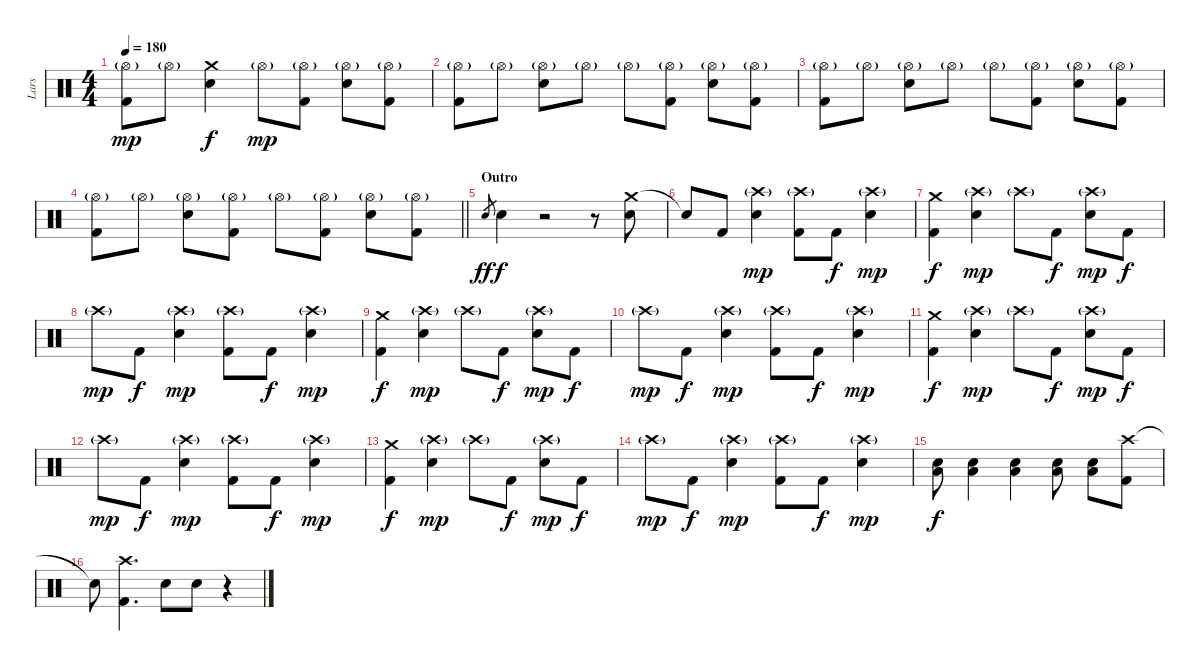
\track ("Lars" "Lars") {instrument percussion}
\staff {score}
\articulation defaults
\ts (4 4)
\tempo 180
\clef neutral
\ks c
("Hi-Hat (open)"{g} "Kick (hit) 2").8{dy mp} "Hi-Hat (open)"{g}.8 ("Crash medium (hit)" "Electric Snare (hit)").4{dy f} "Hi-Hat (open)"{g}.8{dy mp} ("Hi-Hat (open)"{g} "Kick (hit) 2").8 ("Hi-Hat (open)"{g} "Electric Snare (hit)").8 ("Hi-Hat (open)"{g} "Kick (hit) 2").8 |
("Hi-Hat (open)"{g} "Kick (hit) 2").8 "Hi-Hat (open)"{g}.8 ("Hi-Hat (open)"{g} "Electric Snare (hit)").8 "Hi-Hat (open)"{g}.8 "Hi-Hat (open)"{g}.8 ("Hi-Hat (open)"{g} "Kick (hit) 2").8 ("Hi-Hat (open)"{g} "Electric Snare (hit)").8 ("Hi-Hat (open)"{g} "Kick (hit) 2").8 |
("Hi-Hat (open)"{g} "Kick (hit) 2").8 "Hi-Hat (open)"{g}.8 ("Hi-Hat (open)"{g} "Electric Snare (hit)").8 "Hi-Hat (open)"{g}.8 "Hi-Hat (open)"{g}.8 ("Hi-Hat (open)"{g} "Kick (hit) 2").8 ("Hi-Hat (open)"{g} "Electric Snare (hit)").8 ("Hi-Hat (open)"{g} "Kick (hit) 2").8 |
\barLineRight lightlight
("Hi-Hat (open)"{g} "Kick (hit) 2").8 "Hi-Hat (open)"{g}.8 ("Hi-Hat (open)"{g} "Electric Snare (hit)").8 ("Hi-Hat (open)"{g} "Kick (hit) 2").8 "Hi-Hat (open)"{g}.8 ("Hi-Hat (open)"{g} "Kick (hit) 2").8 ("Hi-Hat (open)"{g} "Electric Snare (hit)").8 ("Hi-Hat (open)"{g} "Kick (hit) 2").8 |
\section ("" "Outro")
"Electric Snare (hit)".8{gr dy ff} "Electric Snare (hit)".4{dy f} r.2 r.8 ("Crash medium (hit)" "Electric Snare (hit)").8 |
"Snare (hit)"{t}.8 "Kick (hit) 2".8 ("Crash high (hit)"{g} "Electric Snare (hit)").4{dy mp} ("Crash high (hit)"{g} "Kick (hit) 2").8 "Kick (hit) 2".8{dy f} ("Crash high (hit)"{g} "Electric Snare (hit)").4{dy mp} |
("Crash medium (hit)" "Kick (hit) 2").4{dy f} ("Crash high (hit)"{g} "Electric Snare (hit)").4{dy mp} "Crash high (hit)"{g}.8 "Kick (hit) 2".8{dy f} ("Crash high (hit)"{g} "Electric Snare (hit)").8{dy mp} "Kick (hit) 2".8{dy f} |
"Crash high (hit)"{g}.8{dy mp} "Kick (hit) 2".8{dy f} ("Crash high (hit)"{g} "Electric Snare (hit)").4{dy mp} ("Crash high (hit)"{g} "Kick (hit) 2").8 "Kick (hit) 2".8{dy f} ("Crash high (hit)"{g} "Electric Snare (hit)").4{dy mp} |
("Crash medium (hit)" "Kick (hit) 2").4{dy f} ("Crash high (hit)"{g} "Electric Snare (hit)").4{dy mp} "Crash high (hit)"{g}.8 "Kick (hit) 2".8{dy f} ("Crash high (hit)"{g} "Electric Snare (hit)").8{dy mp} "Kick (hit) 2".8{dy f} |
"Crash high (hit)"{g}.8{dy mp} "Kick (hit) 2".8{dy f} ("Crash high (hit)"{g} "Electric Snare (hit)").4{dy mp} ("Crash high (hit)"{g} "Kick (hit) 2").8 "Kick (hit) 2".8{dy f} ("Crash high (hit)"{g} "Electric Snare (hit)").4{dy mp} |
("Crash medium (hit)" "Kick (hit) 2").4{dy f} ("Crash high (hit)"{g} "Electric Snare (hit)").4{dy mp} "Crash high (hit)"{g}.8 "Kick (hit) 2".8{dy f} ("Crash high (hit)"{g} "Electric Snare (hit)").8{dy mp} "Kick (hit) 2".8{dy f} |
"Crash high (hit)"{g}.8{dy mp} "Kick (hit) 2".8{dy f} ("Crash high (hit)"{g} "Electric Snare (hit)").4{dy mp} ("Crash high (hit)"{g} "Kick (hit) 2").8 "Kick (hit) 2".8{dy f} ("Crash high (hit)"{g} "Electric Snare (hit)").4{dy mp} |
("Crash medium (hit)" "Kick (hit) 2").4{dy f} ("Crash high (hit)"{g} "Electric Snare (hit)").4{dy mp} "Crash high (hit)"{g}.8 "Kick (hit) 2".8{dy f} ("Crash high (hit)"{g} "Electric Snare (hit)").8{dy mp} "Kick (hit) 2".8{dy f} |
"Crash high (hit)"{g}.8{dy mp} "Kick (hit) 2".8{dy f} ("Crash high (hit)"{g} "Electric Snare (hit)").4{dy mp} ("Crash high (hit)"{g} "Kick (hit) 2").8 "Kick (hit) 2".8{dy f} ("Crash high (hit)"{g} "Electric Snare (hit)").4{dy mp} |
("Low Floor Tom (hit)" "Electric Snare (hit)").8{dy f} ("Low Floor Tom (hit)" "Electric Snare (hit)").4 ("Low Floor Tom (hit)" "Electric Snare (hit)").4 ("Low Floor Tom (hit)" "Electric Snare (hit)").8 ("Low Floor Tom (hit)" "Electric Snare (hit)").8 ("Crash high (hit)" "Kick (hit) 2").8 |
"Snare (hit)"{t}.8 ("Crash high (hit)" "Kick (hit) 2").4{d} "Electric Snare (hit)".8 "Electric Snare (hit)".8 r.4
